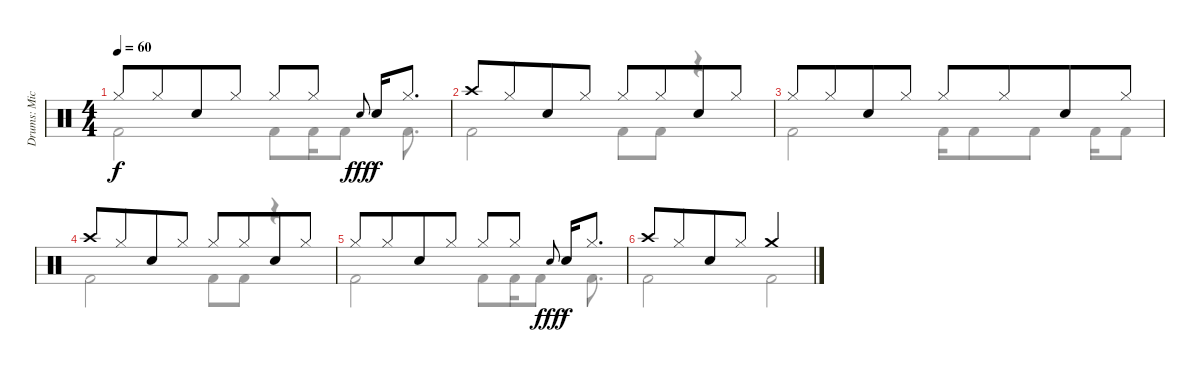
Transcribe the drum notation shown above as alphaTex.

\track ("Drums: Mick" "Drums: Mic") {instrument percussion}
\staff {score}
\articulation defaults
\voice
\ts (4 4)
\tempo 60
\clef neutral
\ks c "Hi-Hat (closed)".8{dy f} "Hi-Hat (closed)".8{beam merge} "Snare (hit) 2".8 "Hi-Hat (closed)".8 "Hi-Hat (closed)".8 "Hi-Hat (closed)".8 "Electric Snare (hit)".8{gr onbeat dy fff beam merge} "Snare (hit) 2".16{dy f} "Hi-Hat (closed)".8{d}
|
"Crash high (hit)".8 "Hi-Hat (closed)".8{beam merge} "Snare (hit) 2".8 "Hi-Hat (closed)".8 "Hi-Hat (closed)".8 "Hi-Hat (closed)".8{beam merge} "Snare (hit) 2".8 "Hi-Hat (closed)".8 |
"Hi-Hat (closed)".8 "Hi-Hat (closed)".8{beam merge} "Snare (hit) 2".8 "Hi-Hat (closed)".8 "Hi-Hat (closed)".8 "Hi-Hat (closed)".8{beam merge} "Snare (hit) 2".8 "Hi-Hat (closed)".8 |
"Crash high (hit)".8 "Hi-Hat (closed)".8{beam merge} "Snare (hit) 2".8 "Hi-Hat (closed)".8 "Hi-Hat (closed)".8 "Hi-Hat (closed)".8{beam merge} "Snare (hit) 2".8 "Hi-Hat (closed)".8 |
"Hi-Hat (closed)".8 "Hi-Hat (closed)".8{beam merge} "Snare (hit) 2".8 "Hi-Hat (closed)".8 "Hi-Hat (closed)".8 "Hi-Hat (closed)".8 "Electric Snare (hit)".8{gr onbeat dy fff beam merge} "Snare (hit) 2".16{dy f} "Hi-Hat (closed)".8{d} |
"Crash high (hit)".8 "Hi-Hat (closed)".8{beam merge} "Snare (hit) 2".8 "Hi-Hat (closed)".8 "Crash medium (hit)".2
\voice
\clef neutral
\ottava regular
\simile none
\ks c "Kick (hit) 2".2{dy f} "Kick (hit) 2".8 "Kick (hit) 2".16 "Kick (hit) 2".8 "Kick (hit) 2".8{d}
|
"Kick (hit) 2".2 "Kick (hit) 2".8 "Kick (hit) 2".8 r.4 |
"Kick (hit) 2".2 "Kick (hit) 2".16 "Kick (hit) 2".8 "Kick (hit) 2".8 "Kick (hit) 2".16 "Kick (hit) 2".8 |
"Kick (hit) 2".2 "Kick (hit) 2".8 "Kick (hit) 2".8 r.4 |
"Kick (hit) 2".2 "Kick (hit) 2".8 "Kick (hit) 2".16 "Kick (hit) 2".8 "Kick (hit) 2".8{d} |
"Kick (hit) 2".2 "Kick (hit) 2".2
